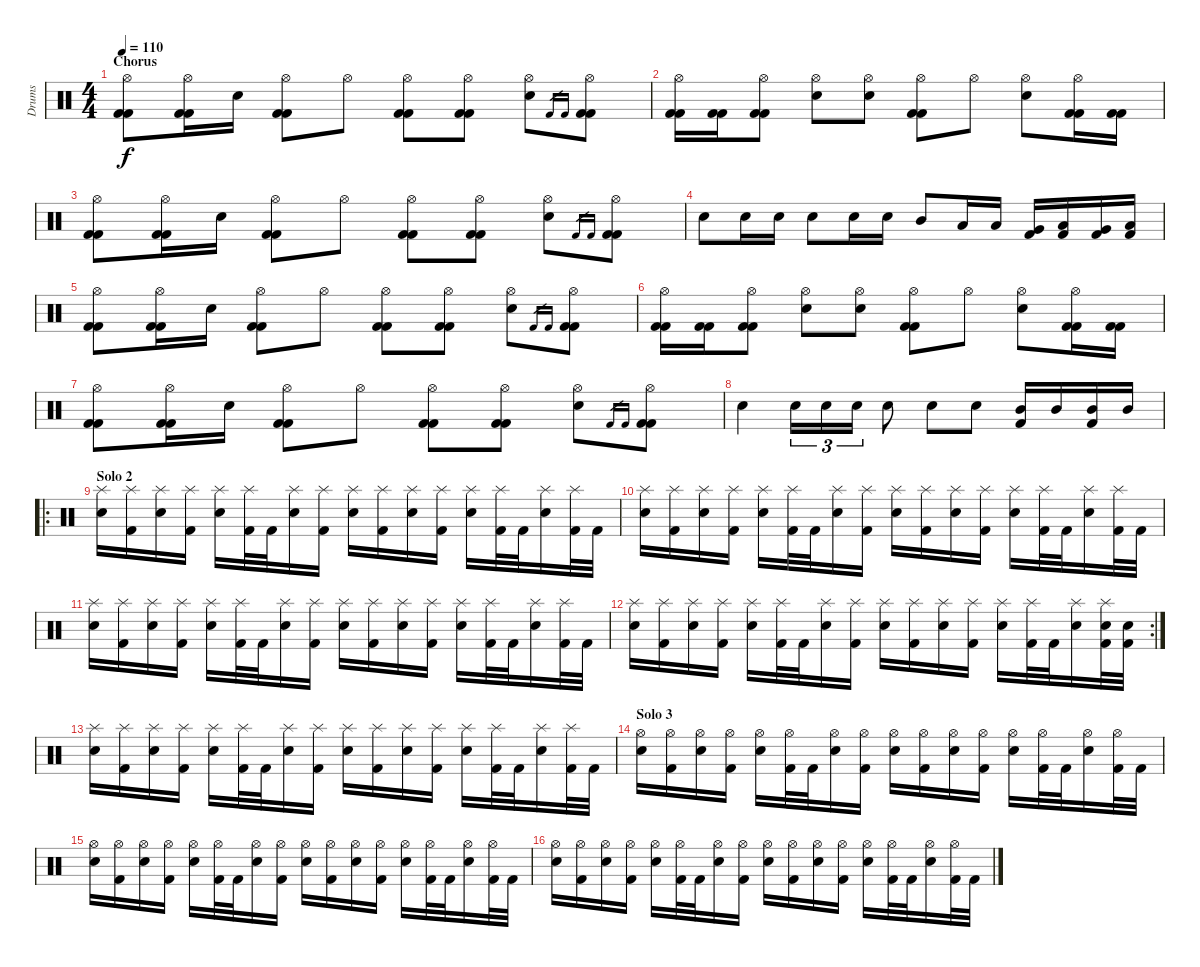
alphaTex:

\track ("Drums" "Drums") {instrument percussion}
\staff {score}
\articulation defaults
\ts (4 4)
\section ("" "Chorus")
\tempo 110
\clef neutral
\ks c
("Hi-Hat (open)" "Kick (hit) 2" "Kick (hit) 2").8{dy f} ("Hi-Hat (open)" "Kick (hit) 2" "Kick (hit) 2").16 "Electric Snare (hit)".16 ("Hi-Hat (open)" "Kick (hit) 2" "Kick (hit) 2").8 "Hi-Hat (open)".8 ("Hi-Hat (open)" "Kick (hit) 2" "Kick (hit) 2").8 ("Hi-Hat (open)" "Kick (hit) 2" "Kick (hit) 2").8 ("Hi-Hat (open)" "Electric Snare (hit)").8 "Kick (hit) 2".16{gr} "Kick (hit) 2".16{gr} ("Hi-Hat (open)" "Kick (hit) 2" "Kick (hit) 2").8 |
("Hi-Hat (open)" "Kick (hit) 2" "Kick (hit) 2").16 ("Kick (hit) 2" "Kick (hit) 2").16 ("Hi-Hat (open)" "Kick (hit) 2" "Kick (hit) 2").8 ("Hi-Hat (open)" "Electric Snare (hit)").8 ("Hi-Hat (open)" "Electric Snare (hit)").8 ("Hi-Hat (open)" "Kick (hit) 2" "Kick (hit) 2").8 "Hi-Hat (open)".8 ("Hi-Hat (open)" "Electric Snare (hit)").8 ("Hi-Hat (open)" "Kick (hit) 2" "Kick (hit) 2").16 ("Kick (hit) 2" "Kick (hit) 2").16 |
("Hi-Hat (open)" "Kick (hit) 2" "Kick (hit) 2").8 ("Hi-Hat (open)" "Kick (hit) 2" "Kick (hit) 2").16 "Electric Snare (hit)".16 ("Hi-Hat (open)" "Kick (hit) 2" "Kick (hit) 2").8 "Hi-Hat (open)".8 ("Hi-Hat (open)" "Kick (hit) 2" "Kick (hit) 2").8 ("Hi-Hat (open)" "Kick (hit) 2" "Kick (hit) 2").8 ("Hi-Hat (open)" "Electric Snare (hit)").8 "Kick (hit) 2".16{gr} "Kick (hit) 2".16{gr} ("Hi-Hat (open)" "Kick (hit) 2" "Kick (hit) 2").8 |
"Snare (hit) 2".8 "Snare (hit) 2".16 "Snare (hit) 2".16 "Snare (hit) 2".8 "Snare (hit) 2".16 "Snare (hit) 2".16 "Mid Tom (hit)".8 "Low Tom (hit)".16 "Low Tom (hit)".16 ("Very Low Tom (hit)" "Kick (hit) 2").16 ("Low Floor Tom (hit)" "Kick (hit) 2").16 ("Very Low Tom (hit)" "Kick (hit) 2").16 ("Low Floor Tom (hit)" "Kick (hit) 2").16 |
("Hi-Hat (open)" "Kick (hit) 2" "Kick (hit) 2").8 ("Hi-Hat (open)" "Kick (hit) 2" "Kick (hit) 2").16 "Electric Snare (hit)".16 ("Hi-Hat (open)" "Kick (hit) 2" "Kick (hit) 2").8 "Hi-Hat (open)".8 ("Hi-Hat (open)" "Kick (hit) 2" "Kick (hit) 2").8 ("Hi-Hat (open)" "Kick (hit) 2" "Kick (hit) 2").8 ("Hi-Hat (open)" "Electric Snare (hit)").8 "Kick (hit) 2".16{gr} "Kick (hit) 2".16{gr} ("Hi-Hat (open)" "Kick (hit) 2" "Kick (hit) 2").8 |
("Hi-Hat (open)" "Kick (hit) 2" "Kick (hit) 2").16 ("Kick (hit) 2" "Kick (hit) 2").16 ("Hi-Hat (open)" "Kick (hit) 2" "Kick (hit) 2").8 ("Hi-Hat (open)" "Electric Snare (hit)").8 ("Hi-Hat (open)" "Electric Snare (hit)").8 ("Hi-Hat (open)" "Kick (hit) 2" "Kick (hit) 2").8 "Hi-Hat (open)".8 ("Hi-Hat (open)" "Electric Snare (hit)").8 ("Hi-Hat (open)" "Kick (hit) 2" "Kick (hit) 2").16 ("Kick (hit) 2" "Kick (hit) 2").16 |
("Hi-Hat (open)" "Kick (hit) 2" "Kick (hit) 2").8 ("Hi-Hat (open)" "Kick (hit) 2" "Kick (hit) 2").16 "Electric Snare (hit)".16 ("Hi-Hat (open)" "Kick (hit) 2" "Kick (hit) 2").8 "Hi-Hat (open)".8 ("Hi-Hat (open)" "Kick (hit) 2" "Kick (hit) 2").8 ("Hi-Hat (open)" "Kick (hit) 2" "Kick (hit) 2").8 ("Hi-Hat (open)" "Electric Snare (hit)").8 "Kick (hit) 2".16{gr} "Kick (hit) 2".16{gr} ("Hi-Hat (open)" "Kick (hit) 2" "Kick (hit) 2").8 |
"Snare (hit) 2".4 "Snare (hit) 2".16{tu (3 2)} "Snare (hit) 2".16{tu (3 2)} "Snare (hit) 2".16{tu (3 2)} "Snare (hit) 2".8 "Snare (hit) 2".8 "Snare (hit) 2".8 ("Mid Tom (hit)" "Kick (hit) 2").16 "Mid Tom (hit)".16 ("Mid Tom (hit)" "Kick (hit) 2").16 "Mid Tom (hit)".16 |
\ro
\section ("" "Solo 2")
("Splash (hit)" "Snare (hit) 2").16 ("Splash (hit)" "Kick (hit) 2").16 ("Splash (hit)" "Snare (hit) 2").16 ("Splash (hit)" "Kick (hit) 2").16 ("Splash (hit)" "Snare (hit) 2").16 ("Splash (hit)" "Kick (hit) 2").32 "Kick (hit) 2".32 ("Splash (hit)" "Snare (hit) 2").16 ("Splash (hit)" "Kick (hit) 2").16 ("Splash (hit)" "Snare (hit) 2").16 ("Splash (hit)" "Kick (hit) 2").16 ("Splash (hit)" "Snare (hit) 2").16 ("Splash (hit)" "Kick (hit) 2").16 ("Splash (hit)" "Snare (hit) 2").16 ("Splash (hit)" "Kick (hit) 2").32 "Kick (hit) 2".32 ("Splash (hit)" "Snare (hit) 2").16 ("Splash (hit)" "Kick (hit) 2").32 "Kick (hit) 2".32 |
("Splash (hit)" "Snare (hit) 2").16 ("Splash (hit)" "Kick (hit) 2").16 ("Splash (hit)" "Snare (hit) 2").16 ("Splash (hit)" "Kick (hit) 2").16 ("Splash (hit)" "Snare (hit) 2").16 ("Splash (hit)" "Kick (hit) 2").32 "Kick (hit) 2".32 ("Splash (hit)" "Snare (hit) 2").16 ("Splash (hit)" "Kick (hit) 2").16 ("Splash (hit)" "Snare (hit) 2").16 ("Splash (hit)" "Kick (hit) 2").16 ("Splash (hit)" "Snare (hit) 2").16 ("Splash (hit)" "Kick (hit) 2").16 ("Splash (hit)" "Snare (hit) 2").16 ("Splash (hit)" "Kick (hit) 2").32 "Kick (hit) 2".32 ("Splash (hit)" "Snare (hit) 2").16 ("Splash (hit)" "Kick (hit) 2").32 "Kick (hit) 2".32 |
("Splash (hit)" "Snare (hit) 2").16 ("Splash (hit)" "Kick (hit) 2").16 ("Splash (hit)" "Snare (hit) 2").16 ("Splash (hit)" "Kick (hit) 2").16 ("Splash (hit)" "Snare (hit) 2").16 ("Splash (hit)" "Kick (hit) 2").32 "Kick (hit) 2".32 ("Splash (hit)" "Snare (hit) 2").16 ("Splash (hit)" "Kick (hit) 2").16 ("Splash (hit)" "Snare (hit) 2").16 ("Splash (hit)" "Kick (hit) 2").16 ("Splash (hit)" "Snare (hit) 2").16 ("Splash (hit)" "Kick (hit) 2").16 ("Splash (hit)" "Snare (hit) 2").16 ("Splash (hit)" "Kick (hit) 2").32 "Kick (hit) 2".32 ("Splash (hit)" "Snare (hit) 2").16 ("Splash (hit)" "Kick (hit) 2").32 "Kick (hit) 2".32 |
\rc 2
("Splash (hit)" "Snare (hit) 2").16 ("Splash (hit)" "Kick (hit) 2").16 ("Splash (hit)" "Snare (hit) 2").16 ("Splash (hit)" "Kick (hit) 2").16 ("Splash (hit)" "Snare (hit) 2").16 ("Splash (hit)" "Kick (hit) 2").32 "Kick (hit) 2".32 ("Splash (hit)" "Snare (hit) 2").16 ("Splash (hit)" "Kick (hit) 2").16 ("Splash (hit)" "Snare (hit) 2").16 ("Splash (hit)" "Kick (hit) 2").16 ("Splash (hit)" "Snare (hit) 2").16 ("Splash (hit)" "Kick (hit) 2").16 ("Splash (hit)" "Snare (hit) 2").16 ("Splash (hit)" "Kick (hit) 2").32 "Kick (hit) 2".32 ("Splash (hit)" "Snare (hit) 2").16 ("Splash (hit)" "Snare (hit) 2" "Kick (hit) 2").32 ("Snare (hit) 2" "Kick (hit) 2").32 |
("Splash (hit)" "Snare (hit) 2").16 ("Splash (hit)" "Kick (hit) 2").16 ("Splash (hit)" "Snare (hit) 2").16 ("Splash (hit)" "Kick (hit) 2").16 ("Splash (hit)" "Snare (hit) 2").16 ("Splash (hit)" "Kick (hit) 2").32 "Kick (hit) 2".32 ("Splash (hit)" "Snare (hit) 2").16 ("Splash (hit)" "Kick (hit) 2").16 ("Splash (hit)" "Snare (hit) 2").16 ("Splash (hit)" "Kick (hit) 2").16 ("Splash (hit)" "Snare (hit) 2").16 ("Splash (hit)" "Kick (hit) 2").16 ("Splash (hit)" "Snare (hit) 2").16 ("Splash (hit)" "Kick (hit) 2").32 "Kick (hit) 2".32 ("Splash (hit)" "Snare (hit) 2").16 ("Splash (hit)" "Kick (hit) 2").32 "Kick (hit) 2".32 |
\section ("" "Solo 3")
("Hi-Hat (open)" "Snare (hit) 2").16 ("Hi-Hat (open)" "Kick (hit) 2").16 ("Hi-Hat (open)" "Snare (hit) 2").16 ("Hi-Hat (open)" "Kick (hit) 2").16 ("Hi-Hat (open)" "Snare (hit) 2").16 ("Hi-Hat (open)" "Kick (hit) 2").32 "Kick (hit) 2".32 ("Hi-Hat (open)" "Snare (hit) 2").16 ("Hi-Hat (open)" "Kick (hit) 2").16 ("Hi-Hat (open)" "Snare (hit) 2").16 ("Hi-Hat (open)" "Kick (hit) 2").16 ("Hi-Hat (open)" "Snare (hit) 2").16 ("Hi-Hat (open)" "Kick (hit) 2").16 ("Hi-Hat (open)" "Snare (hit) 2").16 ("Hi-Hat (open)" "Kick (hit) 2").32 "Kick (hit) 2".32 ("Hi-Hat (open)" "Snare (hit) 2").16 ("Hi-Hat (open)" "Kick (hit) 2").32 "Kick (hit) 2".32 |
("Hi-Hat (open)" "Snare (hit) 2").16 ("Hi-Hat (open)" "Kick (hit) 2").16 ("Hi-Hat (open)" "Snare (hit) 2").16 ("Hi-Hat (open)" "Kick (hit) 2").16 ("Hi-Hat (open)" "Snare (hit) 2").16 ("Hi-Hat (open)" "Kick (hit) 2").32 "Kick (hit) 2".32 ("Hi-Hat (open)" "Snare (hit) 2").16 ("Hi-Hat (open)" "Kick (hit) 2").16 ("Hi-Hat (open)" "Snare (hit) 2").16 ("Hi-Hat (open)" "Kick (hit) 2").16 ("Hi-Hat (open)" "Snare (hit) 2").16 ("Hi-Hat (open)" "Kick (hit) 2").16 ("Hi-Hat (open)" "Snare (hit) 2").16 ("Hi-Hat (open)" "Kick (hit) 2").32 "Kick (hit) 2".32 ("Hi-Hat (open)" "Snare (hit) 2").16 ("Hi-Hat (open)" "Kick (hit) 2").32 "Kick (hit) 2".32 |
("Hi-Hat (open)" "Snare (hit) 2").16 ("Hi-Hat (open)" "Kick (hit) 2").16 ("Hi-Hat (open)" "Snare (hit) 2").16 ("Hi-Hat (open)" "Kick (hit) 2").16 ("Hi-Hat (open)" "Snare (hit) 2").16 ("Hi-Hat (open)" "Kick (hit) 2").32 "Kick (hit) 2".32 ("Hi-Hat (open)" "Snare (hit) 2").16 ("Hi-Hat (open)" "Kick (hit) 2").16 ("Hi-Hat (open)" "Snare (hit) 2").16 ("Hi-Hat (open)" "Kick (hit) 2").16 ("Hi-Hat (open)" "Snare (hit) 2").16 ("Hi-Hat (open)" "Kick (hit) 2").16 ("Hi-Hat (open)" "Snare (hit) 2").16 ("Hi-Hat (open)" "Kick (hit) 2").32 "Kick (hit) 2".32 ("Hi-Hat (open)" "Snare (hit) 2").16 ("Hi-Hat (open)" "Kick (hit) 2").32 "Kick (hit) 2".32
